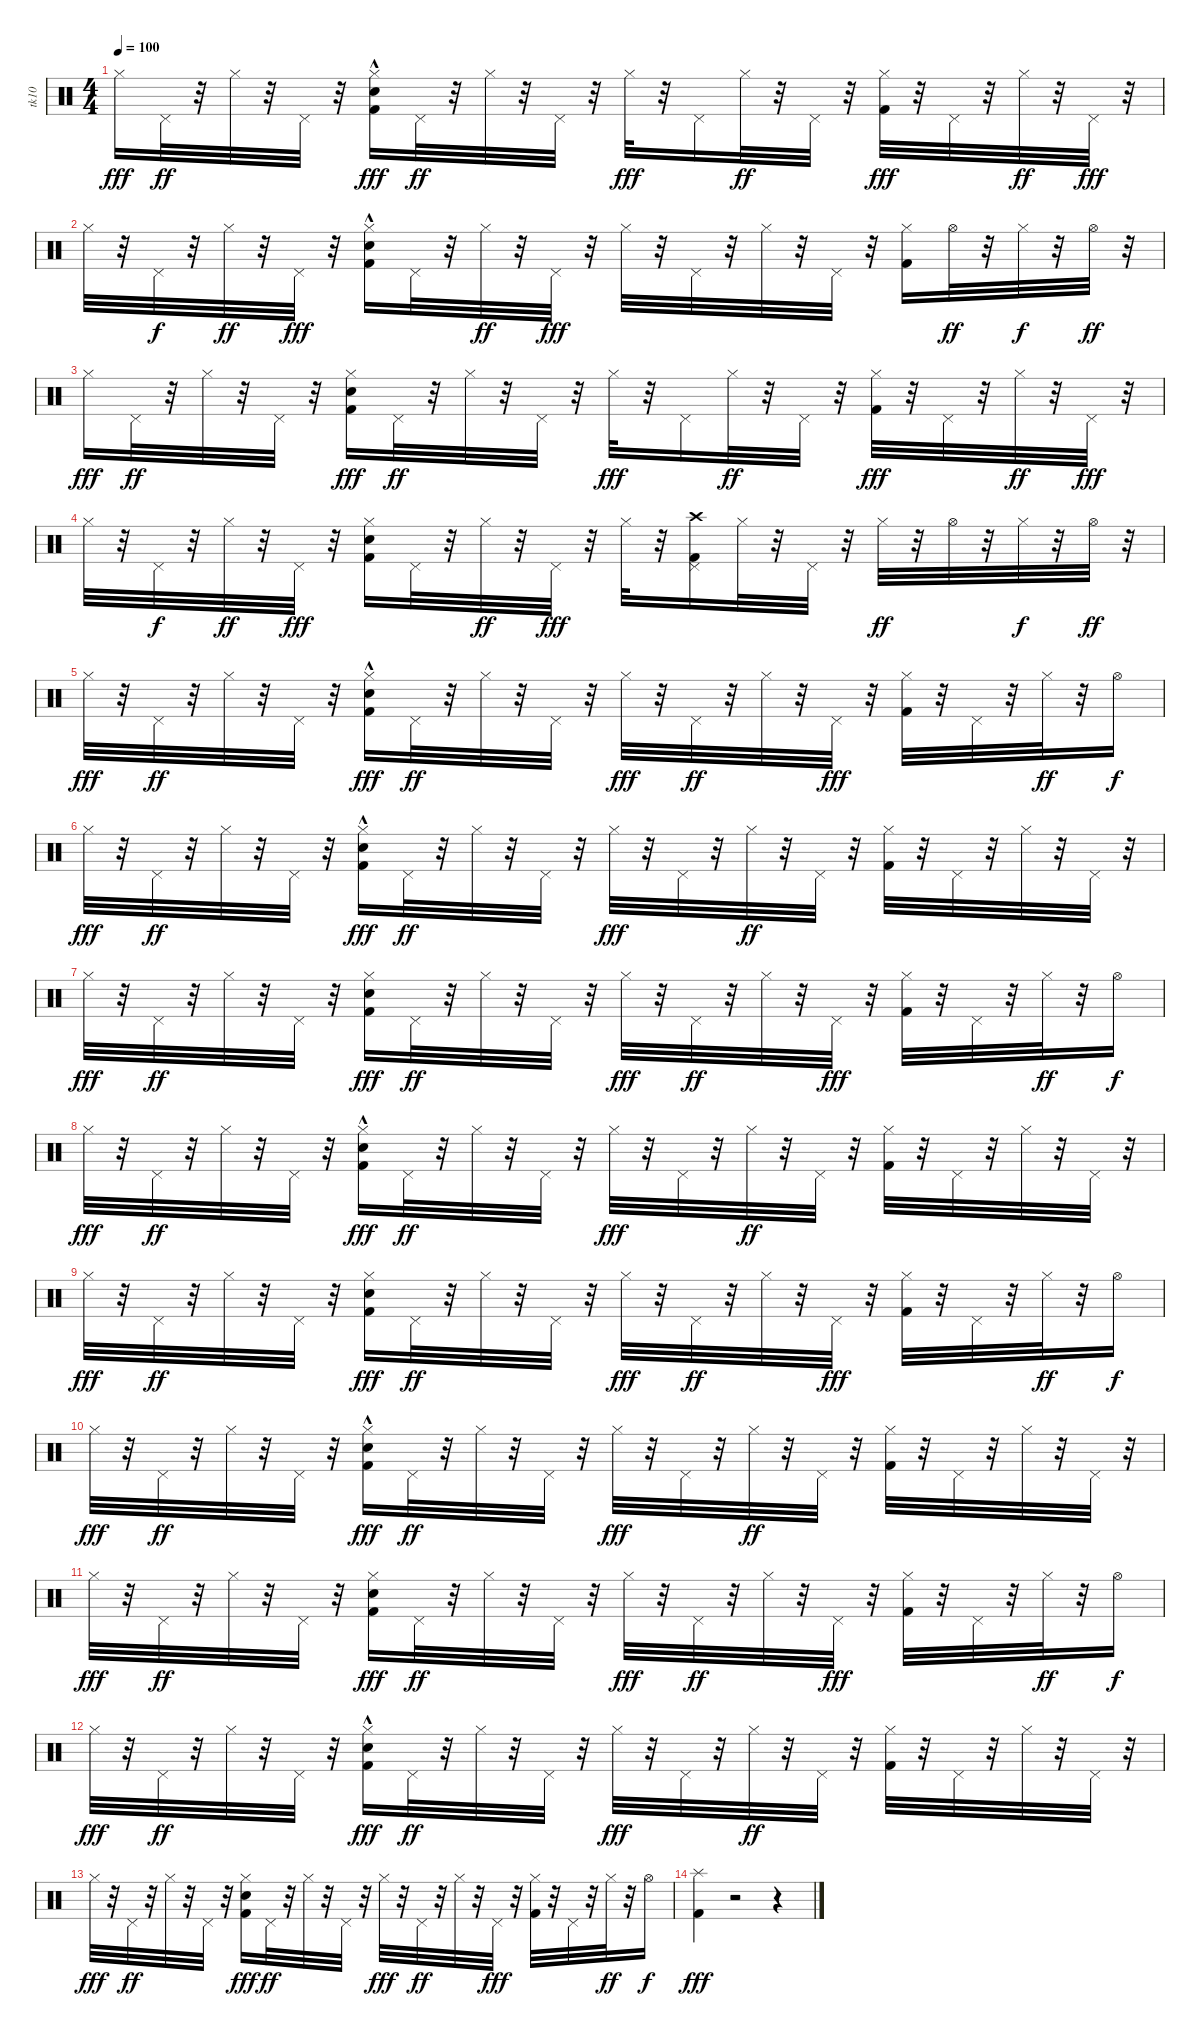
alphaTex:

\track ("tk10" "tk10") {instrument percussion}
\staff {score}
\articulation defaults
\ts (4 4)
\tempo 100
\clef neutral
\ks c "Hi-Hat (closed)".16{dy fff} "Pedal Hi-Hat (hit)".32{dy ff}
r.32 "Hi-Hat (closed)".32 r.32 "Pedal Hi-Hat (hit)".32 r.32 ("Kick (hit) 2" "Hi-Hat (closed)" "Snare (hit) 2"{hac}).16{dy fff} "Pedal Hi-Hat (hit)".32{dy ff} r.32 "Hi-Hat (closed)".32 r.32 "Pedal Hi-Hat (hit)".32 r.32 "Hi-Hat (closed)".32{dy fff} r.32 "Pedal Hi-Hat (hit)".16 "Hi-Hat (closed)".32{dy ff} r.32 "Pedal Hi-Hat (hit)".32 r.32 ("Hi-Hat (closed)" "Kick (hit) 2").32{dy fff} r.32 "Pedal Hi-Hat (hit)".32 r.32 "Hi-Hat (closed)".32{dy ff} r.32 "Pedal Hi-Hat (hit)".32{dy fff} r.32 |
"Hi-Hat (closed)".32 r.32 "Pedal Hi-Hat (hit)".32{dy f} r.32 "Hi-Hat (closed)".32{dy ff} r.32 "Pedal Hi-Hat (hit)".32{dy fff} r.32 ("Kick (hit) 2" "Hi-Hat (closed)" "Snare (hit) 2"{hac}).16 "Pedal Hi-Hat (hit)".32 r.32 "Hi-Hat (closed)".32{dy ff} r.32 "Pedal Hi-Hat (hit)".32{dy fff} r.32 "Hi-Hat (closed)".32 r.32 "Pedal Hi-Hat (hit)".32 r.32 "Hi-Hat (closed)".32 r.32 "Pedal Hi-Hat (hit)".32 r.32 ("Hi-Hat (closed)" "Kick (hit) 2").16 "Hi-Hat (open)".32{dy ff} r.32 "Hi-Hat (closed)".32{dy f} r.32 "Hi-Hat (open)".32{dy ff} r.32 |
"Hi-Hat (closed)".16{dy fff} "Pedal Hi-Hat (hit)".32{dy ff} r.32 "Hi-Hat (closed)".32 r.32 "Pedal Hi-Hat (hit)".32 r.32 ("Kick (hit) 2" "Hi-Hat (closed)" "Snare (hit) 2").16{dy fff} "Pedal Hi-Hat (hit)".32{dy ff} r.32 "Hi-Hat (closed)".32 r.32 "Pedal Hi-Hat (hit)".32 r.32 "Hi-Hat (closed)".32{dy fff} r.32 "Pedal Hi-Hat (hit)".16 "Hi-Hat (closed)".32{dy ff} r.32 "Pedal Hi-Hat (hit)".32 r.32 ("Hi-Hat (closed)" "Kick (hit) 2").32{dy fff} r.32 "Pedal Hi-Hat (hit)".32 r.32 "Hi-Hat (closed)".32{dy ff} r.32 "Pedal Hi-Hat (hit)".32{dy fff} r.32 |
"Hi-Hat (closed)".32 r.32 "Pedal Hi-Hat (hit)".32{dy f} r.32 "Hi-Hat (closed)".32{dy ff} r.32 "Pedal Hi-Hat (hit)".32{dy fff} r.32 ("Kick (hit) 2" "Hi-Hat (closed)" "Snare (hit) 2").16 "Pedal Hi-Hat (hit)".32 r.32 "Hi-Hat (closed)".32{dy ff} r.32 "Pedal Hi-Hat (hit)".32{dy fff} r.32 "Hi-Hat (closed)".32 r.32 ("Crash high (hit)" "Pedal Hi-Hat (hit)" "Kick (hit) 2").16 "Hi-Hat (closed)".32 r.32 "Pedal Hi-Hat (hit)".32 r.32 "Hi-Hat (closed)".32{dy ff} r.32 "Hi-Hat (open)".32 r.32 "Hi-Hat (closed)".32{dy f} r.32 "Hi-Hat (open)".32{dy ff} r.32 |
"Hi-Hat (closed)".32{dy fff} r.32 "Pedal Hi-Hat (hit)".32{dy ff} r.32 "Hi-Hat (closed)".32 r.32 "Pedal Hi-Hat (hit)".32 r.32 ("Kick (hit) 2" "Hi-Hat (closed)" "Snare (hit) 2"{hac}).16{dy fff} "Pedal Hi-Hat (hit)".32{dy ff} r.32 "Hi-Hat (closed)".32 r.32 "Pedal Hi-Hat (hit)".32 r.32 "Hi-Hat (closed)".32{dy fff} r.32 "Pedal Hi-Hat (hit)".32{dy ff} r.32 "Hi-Hat (closed)".32 r.32 "Pedal Hi-Hat (hit)".32{dy fff} r.32 ("Kick (hit) 2" "Hi-Hat (closed)").32 r.32 "Pedal Hi-Hat (hit)".32 r.32 "Hi-Hat (closed)".32{dy ff} r.32 "Hi-Hat (open)".16{dy f} |
"Hi-Hat (closed)".32{dy fff} r.32 "Pedal Hi-Hat (hit)".32{dy ff} r.32 "Hi-Hat (closed)".32 r.32 "Pedal Hi-Hat (hit)".32 r.32 ("Kick (hit) 2"{hac} "Hi-Hat (closed)" "Snare (hit) 2"{hac}).16{dy fff} "Pedal Hi-Hat (hit)".32{dy ff} r.32 "Hi-Hat (closed)".32 r.32 "Pedal Hi-Hat (hit)".32 r.32 "Hi-Hat (closed)".32{dy fff} r.32 "Pedal Hi-Hat (hit)".32 r.32 "Hi-Hat (closed)".32{dy ff} r.32 "Pedal Hi-Hat (hit)".32 r.32 ("Kick (hit) 2" "Hi-Hat (closed)").32 r.32 "Pedal Hi-Hat (hit)".32 r.32 "Hi-Hat (closed)".32 r.32 "Pedal Hi-Hat (hit)".32 r.32 |
"Hi-Hat (closed)".32{dy fff} r.32 "Pedal Hi-Hat (hit)".32{dy ff} r.32 "Hi-Hat (closed)".32 r.32 "Pedal Hi-Hat (hit)".32 r.32 ("Kick (hit) 2" "Hi-Hat (closed)" "Snare (hit) 2").16{dy fff} "Pedal Hi-Hat (hit)".32{dy ff} r.32 "Hi-Hat (closed)".32 r.32 "Pedal Hi-Hat (hit)".32 r.32 "Hi-Hat (closed)".32{dy fff} r.32 "Pedal Hi-Hat (hit)".32{dy ff} r.32 "Hi-Hat (closed)".32 r.32 "Pedal Hi-Hat (hit)".32{dy fff} r.32 ("Kick (hit) 2" "Hi-Hat (closed)").32 r.32 "Pedal Hi-Hat (hit)".32 r.32 "Hi-Hat (closed)".32{dy ff} r.32 "Hi-Hat (open)".16{dy f} |
"Hi-Hat (closed)".32{dy fff} r.32 "Pedal Hi-Hat (hit)".32{dy ff} r.32 "Hi-Hat (closed)".32 r.32 "Pedal Hi-Hat (hit)".32 r.32 ("Kick (hit) 2"{hac} "Hi-Hat (closed)" "Snare (hit) 2"{hac}).16{dy fff} "Pedal Hi-Hat (hit)".32{dy ff} r.32 "Hi-Hat (closed)".32 r.32 "Pedal Hi-Hat (hit)".32 r.32 "Hi-Hat (closed)".32{dy fff} r.32 "Pedal Hi-Hat (hit)".32 r.32 "Hi-Hat (closed)".32{dy ff} r.32 "Pedal Hi-Hat (hit)".32 r.32 ("Kick (hit) 2" "Hi-Hat (closed)").32 r.32 "Pedal Hi-Hat (hit)".32 r.32 "Hi-Hat (closed)".32 r.32 "Pedal Hi-Hat (hit)".32 r.32 |
"Hi-Hat (closed)".32{dy fff} r.32 "Pedal Hi-Hat (hit)".32{dy ff} r.32 "Hi-Hat (closed)".32 r.32 "Pedal Hi-Hat (hit)".32 r.32 ("Kick (hit) 2" "Hi-Hat (closed)" "Snare (hit) 2").16{dy fff} "Pedal Hi-Hat (hit)".32{dy ff} r.32 "Hi-Hat (closed)".32 r.32 "Pedal Hi-Hat (hit)".32 r.32 "Hi-Hat (closed)".32{dy fff} r.32 "Pedal Hi-Hat (hit)".32{dy ff} r.32 "Hi-Hat (closed)".32 r.32 "Pedal Hi-Hat (hit)".32{dy fff} r.32 ("Kick (hit) 2" "Hi-Hat (closed)").32 r.32 "Pedal Hi-Hat (hit)".32 r.32 "Hi-Hat (closed)".32{dy ff} r.32 "Hi-Hat (open)".16{dy f} |
"Hi-Hat (closed)".32{dy fff} r.32 "Pedal Hi-Hat (hit)".32{dy ff} r.32 "Hi-Hat (closed)".32 r.32 "Pedal Hi-Hat (hit)".32 r.32 ("Kick (hit) 2"{hac} "Hi-Hat (closed)" "Snare (hit) 2"{hac}).16{dy fff} "Pedal Hi-Hat (hit)".32{dy ff} r.32 "Hi-Hat (closed)".32 r.32 "Pedal Hi-Hat (hit)".32 r.32 "Hi-Hat (closed)".32{dy fff} r.32 "Pedal Hi-Hat (hit)".32 r.32 "Hi-Hat (closed)".32{dy ff} r.32 "Pedal Hi-Hat (hit)".32 r.32 ("Kick (hit) 2" "Hi-Hat (closed)").32 r.32 "Pedal Hi-Hat (hit)".32 r.32 "Hi-Hat (closed)".32 r.32 "Pedal Hi-Hat (hit)".32 r.32 |
"Hi-Hat (closed)".32{dy fff} r.32 "Pedal Hi-Hat (hit)".32{dy ff} r.32 "Hi-Hat (closed)".32 r.32 "Pedal Hi-Hat (hit)".32 r.32 ("Kick (hit) 2" "Hi-Hat (closed)" "Snare (hit) 2").16{dy fff} "Pedal Hi-Hat (hit)".32{dy ff} r.32 "Hi-Hat (closed)".32 r.32 "Pedal Hi-Hat (hit)".32 r.32 "Hi-Hat (closed)".32{dy fff} r.32 "Pedal Hi-Hat (hit)".32{dy ff} r.32 "Hi-Hat (closed)".32 r.32 "Pedal Hi-Hat (hit)".32{dy fff} r.32 ("Kick (hit) 2" "Hi-Hat (closed)").32 r.32 "Pedal Hi-Hat (hit)".32 r.32 "Hi-Hat (closed)".32{dy ff} r.32 "Hi-Hat (open)".16{dy f} |
"Hi-Hat (closed)".32{dy fff} r.32 "Pedal Hi-Hat (hit)".32{dy ff} r.32 "Hi-Hat (closed)".32 r.32 "Pedal Hi-Hat (hit)".32 r.32 ("Kick (hit) 2"{hac} "Hi-Hat (closed)" "Snare (hit) 2"{hac}).16{dy fff} "Pedal Hi-Hat (hit)".32{dy ff} r.32 "Hi-Hat (closed)".32 r.32 "Pedal Hi-Hat (hit)".32 r.32 "Hi-Hat (closed)".32{dy fff} r.32 "Pedal Hi-Hat (hit)".32 r.32 "Hi-Hat (closed)".32{dy ff} r.32 "Pedal Hi-Hat (hit)".32 r.32 ("Kick (hit) 2" "Hi-Hat (closed)").32 r.32 "Pedal Hi-Hat (hit)".32 r.32 "Hi-Hat (closed)".32 r.32 "Pedal Hi-Hat (hit)".32 r.32 |
"Hi-Hat (closed)".32{dy fff} r.32 "Pedal Hi-Hat (hit)".32{dy ff} r.32 "Hi-Hat (closed)".32 r.32 "Pedal Hi-Hat (hit)".32 r.32 ("Kick (hit) 2" "Hi-Hat (closed)" "Snare (hit) 2").16{dy fff} "Pedal Hi-Hat (hit)".32{dy ff} r.32 "Hi-Hat (closed)".32 r.32 "Pedal Hi-Hat (hit)".32 r.32 "Hi-Hat (closed)".32{dy fff} r.32 "Pedal Hi-Hat (hit)".32{dy ff} r.32 "Hi-Hat (closed)".32 r.32 "Pedal Hi-Hat (hit)".32{dy fff} r.32 ("Kick (hit) 2" "Hi-Hat (closed)").32 r.32 "Pedal Hi-Hat (hit)".32 r.32 "Hi-Hat (closed)".32{dy ff} r.32 "Hi-Hat (open)".16{dy f} |
("Kick (hit) 2" "Splash (hit)").4{dy fff} r.2 r.4
